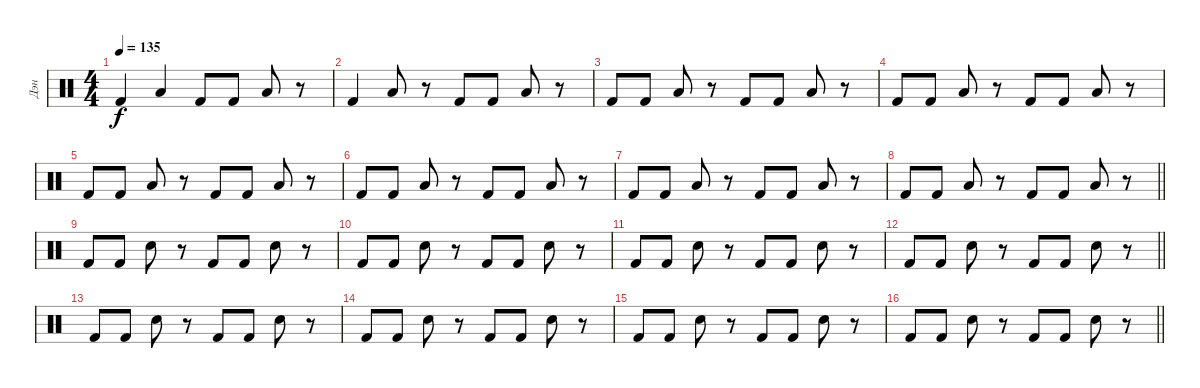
\track ("Дэн" "Дэн") {instrument percussion}
\staff {score}
\articulation defaults
\ts (4 4)
\tempo 135
\clef neutral
\ks c "Kick (hit) 2".4{dy f} "Low Tom (hit)".4 "Kick (hit) 2".8 "Kick (hit) 2".8 "Low Tom (hit)".8
r.8 |
"Kick (hit) 2".4 "Low Tom (hit)".8 r.8 "Kick (hit) 2".8 "Kick (hit) 2".8 "Low Tom (hit)".8 r.8 |
"Kick (hit) 2".8 "Kick (hit) 2".8 "Low Tom (hit)".8 r.8 "Kick (hit) 2".8 "Kick (hit) 2".8 "Low Tom (hit)".8 r.8 |
"Kick (hit) 2".8 "Kick (hit) 2".8 "Low Tom (hit)".8 r.8 "Kick (hit) 2".8 "Kick (hit) 2".8 "Low Tom (hit)".8 r.8 |
"Kick (hit) 2".8 "Kick (hit) 2".8 "Low Tom (hit)".8 r.8 "Kick (hit) 2".8 "Kick (hit) 2".8 "Low Tom (hit)".8 r.8 |
"Kick (hit) 2".8 "Kick (hit) 2".8 "Low Tom (hit)".8 r.8 "Kick (hit) 2".8 "Kick (hit) 2".8 "Low Tom (hit)".8 r.8 |
"Kick (hit) 2".8 "Kick (hit) 2".8 "Low Tom (hit)".8 r.8 "Kick (hit) 2".8 "Kick (hit) 2".8 "Low Tom (hit)".8 r.8 |
\barLineRight lightlight "Kick (hit) 2".8 "Kick (hit) 2".8 "Low Tom (hit)".8
r.8 "Kick (hit) 2".8 "Kick (hit) 2".8 "Low Tom (hit)".8 r.8 |
"Kick (hit) 2".8 "Kick (hit) 2".8 "Snare (hit) 2".8 r.8 "Kick (hit) 2".8 "Kick (hit) 2".8 "Snare (hit) 2".8 r.8 |
"Kick (hit) 2".8 "Kick (hit) 2".8 "Snare (hit) 2".8 r.8 "Kick (hit) 2".8 "Kick (hit) 2".8 "Snare (hit) 2".8 r.8 |
"Kick (hit) 2".8 "Kick (hit) 2".8 "Snare (hit) 2".8 r.8 "Kick (hit) 2".8 "Kick (hit) 2".8 "Snare (hit) 2".8 r.8 |
\barLineRight lightlight "Kick (hit) 2".8 "Kick (hit) 2".8 "Snare (hit) 2".8
r.8 "Kick (hit) 2".8 "Kick (hit) 2".8 "Snare (hit) 2".8 r.8 |
"Kick (hit) 2".8 "Kick (hit) 2".8 "Snare (hit) 2".8 r.8 "Kick (hit) 2".8 "Kick (hit) 2".8 "Snare (hit) 2".8 r.8 |
"Kick (hit) 2".8 "Kick (hit) 2".8 "Snare (hit) 2".8 r.8 "Kick (hit) 2".8 "Kick (hit) 2".8 "Snare (hit) 2".8 r.8 |
"Kick (hit) 2".8 "Kick (hit) 2".8 "Snare (hit) 2".8 r.8 "Kick (hit) 2".8 "Kick (hit) 2".8 "Snare (hit) 2".8 r.8 |
\barLineRight lightlight "Kick (hit) 2".8 "Kick (hit) 2".8 "Snare (hit) 2".8
r.8 "Kick (hit) 2".8 "Kick (hit) 2".8 "Snare (hit) 2".8 r.8
